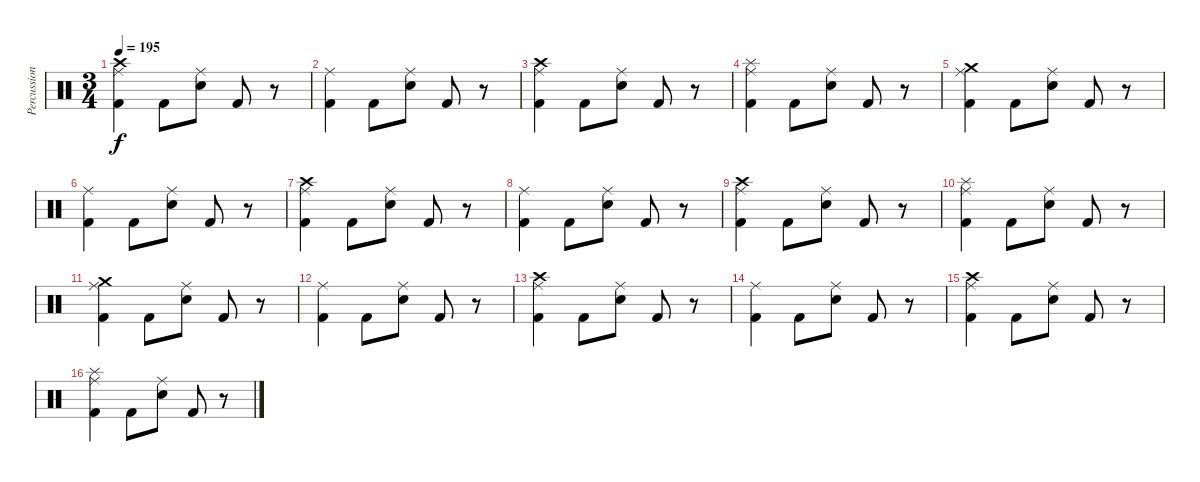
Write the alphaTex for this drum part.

\track ("Percussion" "Percussion") {instrument percussion}
\staff {score}
\articulation defaults
\ts (3 4)
\tempo 195
\clef neutral
\ks c
("Ride (middle)" "Crash high (hit)" "Kick (hit) 2").4{dy f} "Kick (hit) 2".8 ("Ride (middle)" "Snare (hit) 2").8 "Kick (hit) 2".8 r.8 |
("Ride (middle)" "Kick (hit) 2").4 "Kick (hit) 2".8 ("Ride (middle)" "Snare (hit) 2").8 "Kick (hit) 2".8 r.8 |
("Ride (middle)" "Crash high (hit)" "Kick (hit) 2").4 "Kick (hit) 2".8 ("Ride (middle)" "Snare (hit) 2").8 "Kick (hit) 2".8 r.8 |
("Ride (middle)" "Splash (hit)" "Kick (hit) 2").4 "Kick (hit) 2".8 ("Ride (middle)" "Snare (hit) 2").8 "Kick (hit) 2".8 r.8 |
("Ride (middle)" "Crash medium (hit)" "Kick (hit) 2").4 "Kick (hit) 2".8 ("Ride (middle)" "Snare (hit) 2").8 "Kick (hit) 2".8 r.8 |
("Ride (middle)" "Kick (hit) 2").4 "Kick (hit) 2".8 ("Ride (middle)" "Snare (hit) 2").8 "Kick (hit) 2".8 r.8 |
("Ride (middle)" "Crash high (hit)" "Kick (hit) 2").4 "Kick (hit) 2".8 ("Ride (middle)" "Snare (hit) 2").8 "Kick (hit) 2".8 r.8 |
("Ride (middle)" "Kick (hit) 2").4 "Kick (hit) 2".8 ("Ride (middle)" "Snare (hit) 2").8 "Kick (hit) 2".8 r.8 |
("Ride (middle)" "Crash high (hit)" "Kick (hit) 2").4 "Kick (hit) 2".8 ("Ride (middle)" "Snare (hit) 2").8 "Kick (hit) 2".8 r.8 |
("Ride (middle)" "Splash (hit)" "Kick (hit) 2").4 "Kick (hit) 2".8 ("Ride (middle)" "Snare (hit) 2").8 "Kick (hit) 2".8 r.8 |
("Ride (middle)" "Crash medium (hit)" "Kick (hit) 2").4 "Kick (hit) 2".8 ("Ride (middle)" "Snare (hit) 2").8 "Kick (hit) 2".8 r.8 |
("Ride (middle)" "Kick (hit) 2").4 "Kick (hit) 2".8 ("Ride (middle)" "Snare (hit) 2").8 "Kick (hit) 2".8 r.8 |
("Ride (middle)" "Crash high (hit)" "Kick (hit) 2").4 "Kick (hit) 2".8 ("Ride (middle)" "Snare (hit) 2").8 "Kick (hit) 2".8 r.8 |
("Ride (middle)" "Kick (hit) 2").4 "Kick (hit) 2".8 ("Ride (middle)" "Snare (hit) 2").8 "Kick (hit) 2".8 r.8 |
("Ride (middle)" "Crash high (hit)" "Kick (hit) 2").4 "Kick (hit) 2".8 ("Ride (middle)" "Snare (hit) 2").8 "Kick (hit) 2".8 r.8 |
("Ride (middle)" "Splash (hit)" "Kick (hit) 2").4 "Kick (hit) 2".8 ("Ride (middle)" "Snare (hit) 2").8 "Kick (hit) 2".8 r.8
